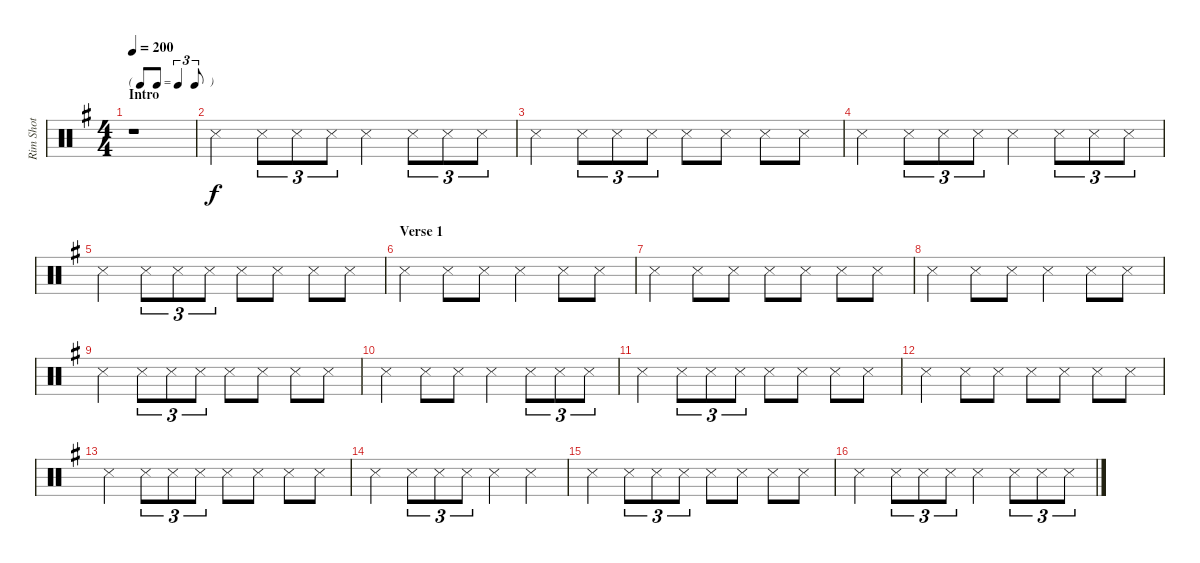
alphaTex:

\track ("Rim Shot" "Rim Shot") {instrument percussion}
\staff {score}
\articulation defaults
\ts (4 4)
\tf triplet8th
\section ("" "Intro")
\tempo 200
\clef neutral
\ks g
r.1{dy f} |
"Snare (side stick) 3".4 "Snare (side stick) 3".8{tu (3 2)} "Snare (side stick) 3".8{tu (3 2)} "Snare (side stick) 3".8{tu (3 2)} "Snare (side stick) 3".4 "Snare (side stick) 3".8{tu (3 2)} "Snare (side stick) 3".8{tu (3 2)} "Snare (side stick) 3".8{tu (3 2)} |
"Snare (side stick) 3".4 "Snare (side stick) 3".8{tu (3 2)} "Snare (side stick) 3".8{tu (3 2)} "Snare (side stick) 3".8{tu (3 2)} "Snare (side stick) 3".8 "Snare (side stick) 3".8 "Snare (side stick) 3".8 "Snare (side stick) 3".8 |
"Snare (side stick) 3".4 "Snare (side stick) 3".8{tu (3 2)} "Snare (side stick) 3".8{tu (3 2)} "Snare (side stick) 3".8{tu (3 2)} "Snare (side stick) 3".4 "Snare (side stick) 3".8{tu (3 2)} "Snare (side stick) 3".8{tu (3 2)} "Snare (side stick) 3".8{tu (3 2)} |
"Snare (side stick) 3".4 "Snare (side stick) 3".8{tu (3 2)} "Snare (side stick) 3".8{tu (3 2)} "Snare (side stick) 3".8{tu (3 2)} "Snare (side stick) 3".8 "Snare (side stick) 3".8 "Snare (side stick) 3".8 "Snare (side stick) 3".8 |
\section ("" "Verse 1")
"Snare (side stick) 3".4 "Snare (side stick) 3".8 "Snare (side stick) 3".8 "Snare (side stick) 3".4 "Snare (side stick) 3".8 "Snare (side stick) 3".8 |
"Snare (side stick) 3".4 "Snare (side stick) 3".8 "Snare (side stick) 3".8 "Snare (side stick) 3".8 "Snare (side stick) 3".8 "Snare (side stick) 3".8 "Snare (side stick) 3".8 |
"Snare (side stick) 3".4 "Snare (side stick) 3".8 "Snare (side stick) 3".8 "Snare (side stick) 3".4 "Snare (side stick) 3".8 "Snare (side stick) 3".8 |
"Snare (side stick) 3".4 "Snare (side stick) 3".8{tu (3 2)} "Snare (side stick) 3".8{tu (3 2)} "Snare (side stick) 3".8{tu (3 2)} "Snare (side stick) 3".8 "Snare (side stick) 3".8 "Snare (side stick) 3".8 "Snare (side stick) 3".8 |
"Snare (side stick) 3".4 "Snare (side stick) 3".8 "Snare (side stick) 3".8 "Snare (side stick) 3".4 "Snare (side stick) 3".8{tu (3 2)} "Snare (side stick) 3".8{tu (3 2)} "Snare (side stick) 3".8{tu (3 2)} |
"Snare (side stick) 3".4 "Snare (side stick) 3".8{tu (3 2)} "Snare (side stick) 3".8{tu (3 2)} "Snare (side stick) 3".8{tu (3 2)} "Snare (side stick) 3".8 "Snare (side stick) 3".8 "Snare (side stick) 3".8 "Snare (side stick) 3".8 |
"Snare (side stick) 3".4 "Snare (side stick) 3".8 "Snare (side stick) 3".8 "Snare (side stick) 3".8 "Snare (side stick) 3".8 "Snare (side stick) 3".8 "Snare (side stick) 3".8 |
"Snare (side stick) 3".4 "Snare (side stick) 3".8{tu (3 2)} "Snare (side stick) 3".8{tu (3 2)} "Snare (side stick) 3".8{tu (3 2)} "Snare (side stick) 3".8 "Snare (side stick) 3".8 "Snare (side stick) 3".8 "Snare (side stick) 3".8 |
"Snare (side stick) 3".4 "Snare (side stick) 3".8{tu (3 2)} "Snare (side stick) 3".8{tu (3 2)} "Snare (side stick) 3".8{tu (3 2)} "Snare (side stick) 3".4 "Snare (side stick) 3".4 |
"Snare (side stick) 3".4 "Snare (side stick) 3".8{tu (3 2)} "Snare (side stick) 3".8{tu (3 2)} "Snare (side stick) 3".8{tu (3 2)} "Snare (side stick) 3".8 "Snare (side stick) 3".8 "Snare (side stick) 3".8 "Snare (side stick) 3".8 |
"Snare (side stick) 3".4 "Snare (side stick) 3".8{tu (3 2)} "Snare (side stick) 3".8{tu (3 2)} "Snare (side stick) 3".8{tu (3 2)} "Snare (side stick) 3".4 "Snare (side stick) 3".8{tu (3 2)} "Snare (side stick) 3".8{tu (3 2)} "Snare (side stick) 3".8{tu (3 2)}
